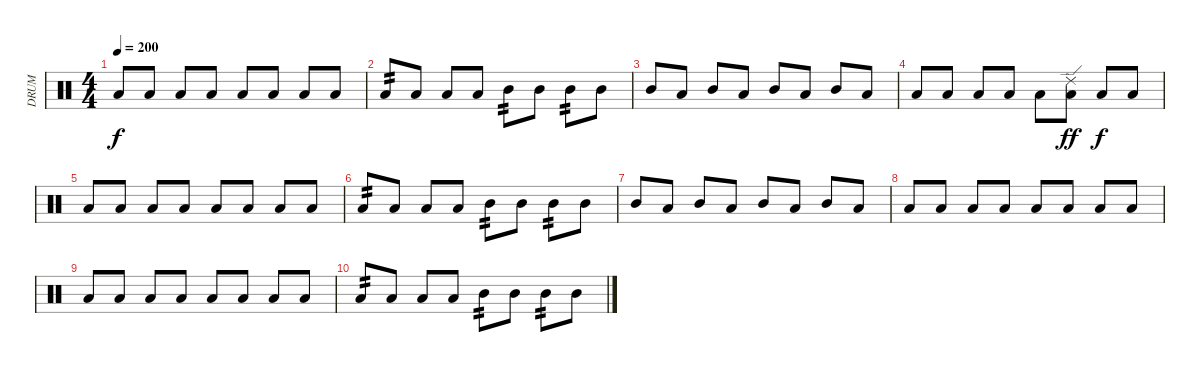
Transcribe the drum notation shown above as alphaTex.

\track ("DRUM" "DRUM") {instrument percussion}
\staff {score}
\articulation defaults
\ts (4 4)
\tempo 200
\clef neutral
\ks c "Low Tom (hit)".8{dy f} "Low Tom (hit)".8 "Low Tom (hit)".8 "Low Tom (hit)".8 "Low Tom (hit)".8 "Low Tom (hit)".8 "Low Tom (hit)".8 "Low Tom (hit)".8
|
"Low Tom (hit)".8{tp 2} "Low Tom (hit)".8 "Low Tom (hit)".8 "Low Tom (hit)".8 "Mid Tom (hit)".8{tp 2} "Mid Tom (hit)".8 "Mid Tom (hit)".8{tp 2} "Mid Tom (hit)".8 |
"Mid Tom (hit)".8 "Low Tom (hit)".8 "Mid Tom (hit)".8 "Low Tom (hit)".8 "Mid Tom (hit)".8 "Low Tom (hit)".8 "Mid Tom (hit)".8 "Low Tom (hit)".8 |
"Low Tom (hit)".8 "Low Floor Tom (hit)".8 "Low Tom (hit)".8 "Low Floor Tom (hit)".8 "Low Tom (hit)".8 ("Ride (edge) 2" "Low Floor Tom (hit)").8{dy ff} "Low Tom (hit)".8{dy f} "Low Floor Tom (hit)".8 |
"Low Tom (hit)".8 "Low Tom (hit)".8 "Low Tom (hit)".8 "Low Tom (hit)".8 "Low Tom (hit)".8 "Low Tom (hit)".8 "Low Tom (hit)".8 "Low Tom (hit)".8 |
"Low Tom (hit)".8{tp 2} "Low Tom (hit)".8 "Low Tom (hit)".8 "Low Tom (hit)".8 "Mid Tom (hit)".8{tp 2} "Mid Tom (hit)".8 "Mid Tom (hit)".8{tp 2} "Mid Tom (hit)".8 |
"Mid Tom (hit)".8 "Low Tom (hit)".8 "Mid Tom (hit)".8 "Low Tom (hit)".8 "Mid Tom (hit)".8 "Low Tom (hit)".8 "Mid Tom (hit)".8 "Low Tom (hit)".8 |
"Low Tom (hit)".8 "Low Floor Tom (hit)".8 "Low Tom (hit)".8 "Low Floor Tom (hit)".8 "Low Tom (hit)".8 "Low Floor Tom (hit)".8 "Low Tom (hit)".8 "Low Floor Tom (hit)".8 |
"Low Tom (hit)".8 "Low Tom (hit)".8 "Low Tom (hit)".8 "Low Tom (hit)".8 "Low Tom (hit)".8 "Low Tom (hit)".8 "Low Tom (hit)".8 "Low Tom (hit)".8 |
"Low Tom (hit)".8{tp 2} "Low Tom (hit)".8 "Low Tom (hit)".8 "Low Tom (hit)".8 "Mid Tom (hit)".8{tp 2} "Mid Tom (hit)".8 "Mid Tom (hit)".8{tp 2} "Mid Tom (hit)".8
